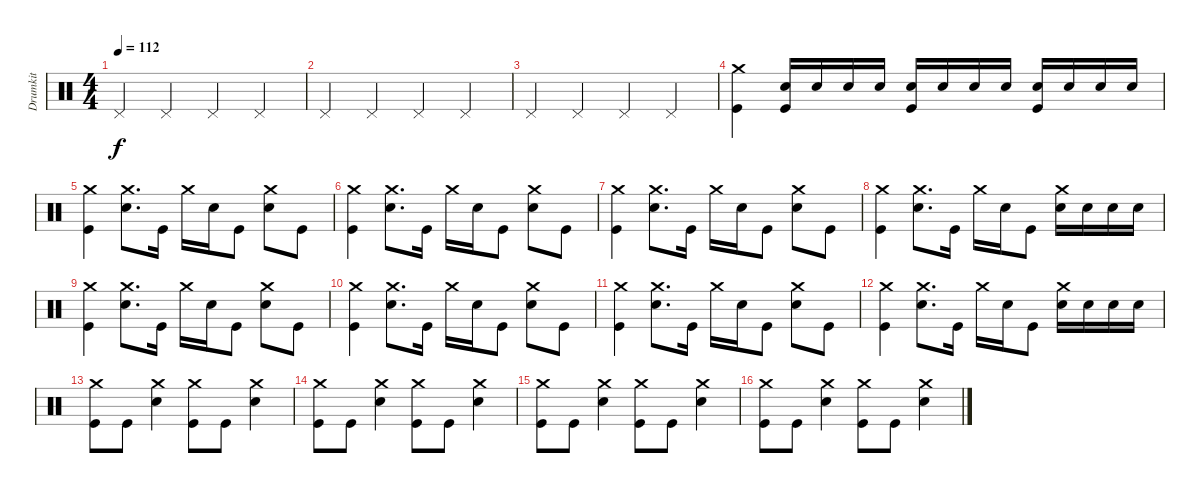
\track ("Drumkit" "Drumkit") {instrument percussion}
\staff {score}
\articulation defaults
\ts (4 4)
\tempo 112
\clef neutral
\ks c "Pedal Hi-Hat (hit)".4{dy f} "Pedal Hi-Hat (hit)".4 "Pedal Hi-Hat (hit)".4 "Pedal Hi-Hat (hit)".4
|
"Pedal Hi-Hat (hit)".4 "Pedal Hi-Hat (hit)".4 "Pedal Hi-Hat (hit)".4 "Pedal Hi-Hat (hit)".4 |
"Pedal Hi-Hat (hit)".4 "Pedal Hi-Hat (hit)".4 "Pedal Hi-Hat (hit)".4 "Pedal Hi-Hat (hit)".4 |
("Crash medium (hit)" "Kick (hit)").4 ("Snare (hit) 2" "Kick (hit)").16 "Snare (hit) 2".16 "Snare (hit) 2".16 "Snare (hit) 2".16 ("Snare (hit) 2" "Kick (hit)").16 "Snare (hit) 2".16 "Snare (hit) 2".16 "Snare (hit) 2".16 ("Snare (hit) 2" "Kick (hit)").16 "Snare (hit) 2".16 "Snare (hit) 2".16 "Snare (hit) 2".16 |
("Crash medium (hit)" "Kick (hit)").4 ("Crash medium (hit)" "Snare (hit) 2").8{d} "Kick (hit)".16 "Crash medium (hit)".16 "Snare (hit) 2".16 "Kick (hit)".8 ("Crash medium (hit)" "Snare (hit) 2").8 "Kick (hit)".8 |
("Crash medium (hit)" "Kick (hit)").4 ("Crash medium (hit)" "Snare (hit) 2").8{d} "Kick (hit)".16 "Crash medium (hit)".16 "Snare (hit) 2".16 "Kick (hit)".8 ("Crash medium (hit)" "Snare (hit) 2").8 "Kick (hit)".8 |
("Crash medium (hit)" "Kick (hit)").4 ("Crash medium (hit)" "Snare (hit) 2").8{d} "Kick (hit)".16 "Crash medium (hit)".16 "Snare (hit) 2".16 "Kick (hit)".8 ("Crash medium (hit)" "Snare (hit) 2").8 "Kick (hit)".8 |
("Crash medium (hit)" "Kick (hit)").4 ("Crash medium (hit)" "Snare (hit) 2").8{d} "Kick (hit)".16 "Crash medium (hit)".16 "Snare (hit) 2".16 "Kick (hit)".8 ("Crash medium (hit)" "Snare (hit) 2").16 "Snare (hit) 2".16 "Snare (hit) 2".16 "Snare (hit) 2".16 |
("Crash medium (hit)" "Kick (hit)").4 ("Crash medium (hit)" "Snare (hit) 2").8{d} "Kick (hit)".16 "Crash medium (hit)".16 "Snare (hit) 2".16 "Kick (hit)".8 ("Crash medium (hit)" "Snare (hit) 2").8 "Kick (hit)".8 |
("Crash medium (hit)" "Kick (hit)").4 ("Crash medium (hit)" "Snare (hit) 2").8{d} "Kick (hit)".16 "Crash medium (hit)".16 "Snare (hit) 2".16 "Kick (hit)".8 ("Crash medium (hit)" "Snare (hit) 2").8 "Kick (hit)".8 |
("Crash medium (hit)" "Kick (hit)").4 ("Crash medium (hit)" "Snare (hit) 2").8{d} "Kick (hit)".16 "Crash medium (hit)".16 "Snare (hit) 2".16 "Kick (hit)".8 ("Crash medium (hit)" "Snare (hit) 2").8 "Kick (hit)".8 |
("Crash medium (hit)" "Kick (hit)").4 ("Crash medium (hit)" "Snare (hit) 2").8{d} "Kick (hit)".16 "Crash medium (hit)".16 "Snare (hit) 2".16 "Kick (hit)".8 ("Crash medium (hit)" "Snare (hit) 2").16 "Snare (hit) 2".16 "Snare (hit) 2".16 "Snare (hit) 2".16 |
("Crash medium (hit)" "Kick (hit)").8 "Kick (hit)".8 ("Crash medium (hit)" "Snare (hit) 2").4 ("Crash medium (hit)" "Kick (hit)").8 "Kick (hit)".8 ("Crash medium (hit)" "Snare (hit) 2").4 |
("Crash medium (hit)" "Kick (hit)").8 "Kick (hit)".8 ("Crash medium (hit)" "Snare (hit) 2").4 ("Crash medium (hit)" "Kick (hit)").8 "Kick (hit)".8 ("Crash medium (hit)" "Snare (hit) 2").4 |
("Crash medium (hit)" "Kick (hit)").8 "Kick (hit)".8 ("Crash medium (hit)" "Snare (hit) 2").4 ("Crash medium (hit)" "Kick (hit)").8 "Kick (hit)".8 ("Crash medium (hit)" "Snare (hit) 2").4 |
("Crash medium (hit)" "Kick (hit)").8 "Kick (hit)".8 ("Crash medium (hit)" "Snare (hit) 2").4 ("Crash medium (hit)" "Kick (hit)").8 "Kick (hit)".8 ("Crash medium (hit)" "Snare (hit) 2").4
